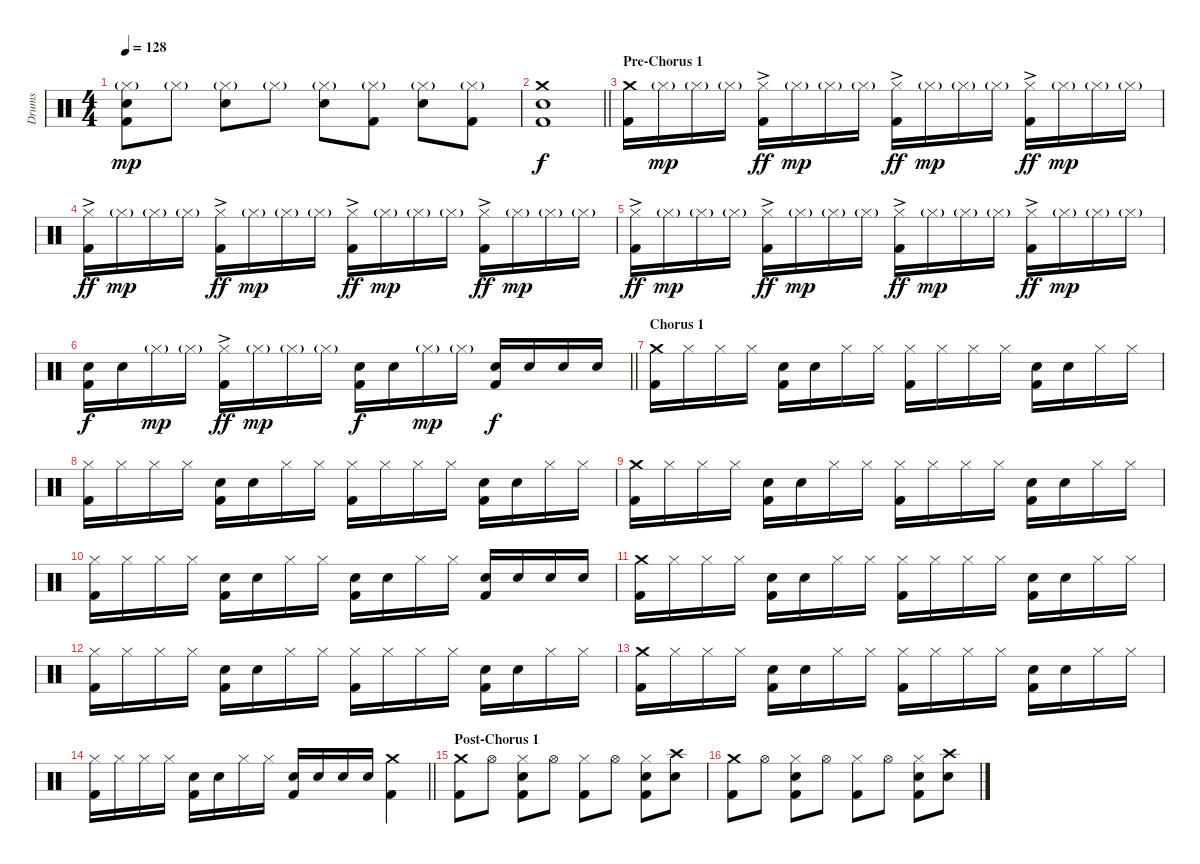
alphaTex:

\track ("Drums" "Drums") {instrument percussion}
\staff {score}
\articulation defaults
\ts (4 4)
\tempo 128
\clef neutral
\ks c
("Hi-Hat (closed)"{g} "Electric Snare (hit)" "Kick (hit) 2").8{dy mp} "Hi-Hat (closed)"{g}.8 ("Hi-Hat (closed)"{g} "Electric Snare (hit)").8 "Hi-Hat (closed)"{g}.8 ("Hi-Hat (closed)"{g} "Electric Snare (hit)").8 ("Hi-Hat (closed)"{g} "Kick (hit) 2").8 ("Hi-Hat (closed)"{g} "Electric Snare (hit)").8 ("Hi-Hat (closed)"{g} "Kick (hit) 2").8 |
\barLineRight lightlight
("Crash medium (hit)" "Electric Snare (hit)" "Kick (hit) 2").1{dy f} |
\section ("" "Pre-Chorus 1")
("Crash medium (hit)" "Kick (hit) 2").16 "Hi-Hat (closed)"{g}.16{dy mp} "Hi-Hat (closed)"{g}.16 "Hi-Hat (closed)"{g}.16 ("Hi-Hat (closed)"{ac} "Kick (hit) 2").16{dy ff} "Hi-Hat (closed)"{g}.16{dy mp} "Hi-Hat (closed)"{g}.16 "Hi-Hat (closed)"{g}.16 ("Hi-Hat (closed)"{ac} "Kick (hit) 2").16{dy ff} "Hi-Hat (closed)"{g}.16{dy mp} "Hi-Hat (closed)"{g}.16 "Hi-Hat (closed)"{g}.16 ("Hi-Hat (closed)"{ac} "Kick (hit) 2").16{dy ff} "Hi-Hat (closed)"{g}.16{dy mp} "Hi-Hat (closed)"{g}.16 "Hi-Hat (closed)"{g}.16 |
("Hi-Hat (closed)"{ac} "Kick (hit) 2").16{dy ff} "Hi-Hat (closed)"{g}.16{dy mp} "Hi-Hat (closed)"{g}.16 "Hi-Hat (closed)"{g}.16 ("Hi-Hat (closed)"{ac} "Kick (hit) 2").16{dy ff} "Hi-Hat (closed)"{g}.16{dy mp} "Hi-Hat (closed)"{g}.16 "Hi-Hat (closed)"{g}.16 ("Hi-Hat (closed)"{ac} "Kick (hit) 2").16{dy ff} "Hi-Hat (closed)"{g}.16{dy mp} "Hi-Hat (closed)"{g}.16 "Hi-Hat (closed)"{g}.16 ("Hi-Hat (closed)"{ac} "Kick (hit) 2").16{dy ff} "Hi-Hat (closed)"{g}.16{dy mp} "Hi-Hat (closed)"{g}.16 "Hi-Hat (closed)"{g}.16 |
("Hi-Hat (closed)"{ac} "Kick (hit) 2").16{dy ff} "Hi-Hat (closed)"{g}.16{dy mp} "Hi-Hat (closed)"{g}.16 "Hi-Hat (closed)"{g}.16 ("Hi-Hat (closed)"{ac} "Kick (hit) 2").16{dy ff} "Hi-Hat (closed)"{g}.16{dy mp} "Hi-Hat (closed)"{g}.16 "Hi-Hat (closed)"{g}.16 ("Hi-Hat (closed)"{ac} "Kick (hit) 2").16{dy ff} "Hi-Hat (closed)"{g}.16{dy mp} "Hi-Hat (closed)"{g}.16 "Hi-Hat (closed)"{g}.16 ("Hi-Hat (closed)"{ac} "Kick (hit) 2").16{dy ff} "Hi-Hat (closed)"{g}.16{dy mp} "Hi-Hat (closed)"{g}.16 "Hi-Hat (closed)"{g}.16 |
\barLineRight lightlight
("Electric Snare (hit)" "Kick (hit) 2").16{dy f} "Electric Snare (hit)".16 "Hi-Hat (closed)"{g}.16{dy mp} "Hi-Hat (closed)"{g}.16 ("Hi-Hat (closed)"{ac} "Kick (hit) 2").16{dy ff} "Hi-Hat (closed)"{g}.16{dy mp} "Hi-Hat (closed)"{g}.16 "Hi-Hat (closed)"{g}.16 ("Electric Snare (hit)" "Kick (hit) 2").16{dy f} "Electric Snare (hit)".16 "Hi-Hat (closed)"{g}.16{dy mp} "Hi-Hat (closed)"{g}.16 ("Electric Snare (hit)" "Kick (hit) 2").16{dy f} "Electric Snare (hit)".16 "Electric Snare (hit)".16 "Electric Snare (hit)".16 |
\section ("" "Chorus 1")
("Crash medium (hit)" "Kick (hit) 2").16 "Hi-Hat (closed)".16 "Hi-Hat (closed)".16 "Hi-Hat (closed)".16 ("Electric Snare (hit)" "Kick (hit) 2").16 "Electric Snare (hit)".16 "Hi-Hat (closed)".16 "Hi-Hat (closed)".16 ("Hi-Hat (closed)" "Kick (hit) 2").16 "Hi-Hat (closed)".16 "Hi-Hat (closed)".16 "Hi-Hat (closed)".16 ("Electric Snare (hit)" "Kick (hit) 2").16 "Electric Snare (hit)".16 "Hi-Hat (closed)".16 "Hi-Hat (closed)".16 |
("Hi-Hat (closed)" "Kick (hit) 2").16 "Hi-Hat (closed)".16 "Hi-Hat (closed)".16 "Hi-Hat (closed)".16 ("Electric Snare (hit)" "Kick (hit) 2").16 "Electric Snare (hit)".16 "Hi-Hat (closed)".16 "Hi-Hat (closed)".16 ("Hi-Hat (closed)" "Kick (hit) 2").16 "Hi-Hat (closed)".16 "Hi-Hat (closed)".16 "Hi-Hat (closed)".16 ("Electric Snare (hit)" "Kick (hit) 2").16 "Electric Snare (hit)".16 "Hi-Hat (closed)".16 "Hi-Hat (closed)".16 |
("Crash medium (hit)" "Kick (hit) 2").16 "Hi-Hat (closed)".16 "Hi-Hat (closed)".16 "Hi-Hat (closed)".16 ("Electric Snare (hit)" "Kick (hit) 2").16 "Electric Snare (hit)".16 "Hi-Hat (closed)".16 "Hi-Hat (closed)".16 ("Hi-Hat (closed)" "Kick (hit) 2").16 "Hi-Hat (closed)".16 "Hi-Hat (closed)".16 "Hi-Hat (closed)".16 ("Electric Snare (hit)" "Kick (hit) 2").16 "Electric Snare (hit)".16 "Hi-Hat (closed)".16 "Hi-Hat (closed)".16 |
("Hi-Hat (closed)" "Kick (hit) 2").16 "Hi-Hat (closed)".16 "Hi-Hat (closed)".16 "Hi-Hat (closed)".16 ("Electric Snare (hit)" "Kick (hit) 2").16 "Electric Snare (hit)".16 "Hi-Hat (closed)".16 "Hi-Hat (closed)".16 ("Electric Snare (hit)" "Kick (hit) 2").16 "Electric Snare (hit)".16 "Hi-Hat (closed)".16 "Hi-Hat (closed)".16 ("Electric Snare (hit)" "Kick (hit) 2").16 "Electric Snare (hit)".16 "Electric Snare (hit)".16 "Electric Snare (hit)".16 |
("Crash medium (hit)" "Kick (hit) 2").16 "Hi-Hat (closed)".16 "Hi-Hat (closed)".16 "Hi-Hat (closed)".16 ("Electric Snare (hit)" "Kick (hit) 2").16 "Electric Snare (hit)".16 "Hi-Hat (closed)".16 "Hi-Hat (closed)".16 ("Hi-Hat (closed)" "Kick (hit) 2").16 "Hi-Hat (closed)".16 "Hi-Hat (closed)".16 "Hi-Hat (closed)".16 ("Electric Snare (hit)" "Kick (hit) 2").16 "Electric Snare (hit)".16 "Hi-Hat (closed)".16 "Hi-Hat (closed)".16 |
("Hi-Hat (closed)" "Kick (hit) 2").16 "Hi-Hat (closed)".16 "Hi-Hat (closed)".16 "Hi-Hat (closed)".16 ("Electric Snare (hit)" "Kick (hit) 2").16 "Electric Snare (hit)".16 "Hi-Hat (closed)".16 "Hi-Hat (closed)".16 ("Hi-Hat (closed)" "Kick (hit) 2").16 "Hi-Hat (closed)".16 "Hi-Hat (closed)".16 "Hi-Hat (closed)".16 ("Electric Snare (hit)" "Kick (hit) 2").16 "Electric Snare (hit)".16 "Hi-Hat (closed)".16 "Hi-Hat (closed)".16 |
("Crash medium (hit)" "Kick (hit) 2").16 "Hi-Hat (closed)".16 "Hi-Hat (closed)".16 "Hi-Hat (closed)".16 ("Electric Snare (hit)" "Kick (hit) 2").16 "Electric Snare (hit)".16 "Hi-Hat (closed)".16 "Hi-Hat (closed)".16 ("Hi-Hat (closed)" "Kick (hit) 2").16 "Hi-Hat (closed)".16 "Hi-Hat (closed)".16 "Hi-Hat (closed)".16 ("Electric Snare (hit)" "Kick (hit) 2").16 "Electric Snare (hit)".16 "Hi-Hat (closed)".16 "Hi-Hat (closed)".16 |
\barLineRight lightlight
("Hi-Hat (closed)" "Kick (hit) 2").16 "Hi-Hat (closed)".16 "Hi-Hat (closed)".16 "Hi-Hat (closed)".16 ("Electric Snare (hit)" "Kick (hit) 2").16 "Electric Snare (hit)".16 "Hi-Hat (closed)".16 "Hi-Hat (closed)".16 ("Electric Snare (hit)" "Kick (hit) 2").16 "Electric Snare (hit)".16 "Electric Snare (hit)".16 "Electric Snare (hit)".16 ("Crash medium (hit)" "Kick (hit) 2").4 |
\section ("" "Post-Chorus 1")
("Crash medium (hit)" "Kick (hit) 2").8 "Hi-Hat (open)".8 ("Hi-Hat (closed)" "Electric Snare (hit)" "Kick (hit) 2").8 "Hi-Hat (open)".8 ("Hi-Hat (closed)" "Kick (hit) 2").8 "Hi-Hat (open)".8 ("Hi-Hat (closed)" "Electric Snare (hit)" "Kick (hit) 2").8 ("Crash high (hit)" "Electric Snare (hit)").8 |
("Crash medium (hit)" "Kick (hit) 2").8 "Hi-Hat (open)".8 ("Hi-Hat (closed)" "Electric Snare (hit)" "Kick (hit) 2").8 "Hi-Hat (open)".8 ("Hi-Hat (closed)" "Kick (hit) 2").8 "Hi-Hat (open)".8 ("Hi-Hat (closed)" "Electric Snare (hit)" "Kick (hit) 2").8 ("Crash high (hit)" "Electric Snare (hit)").8
